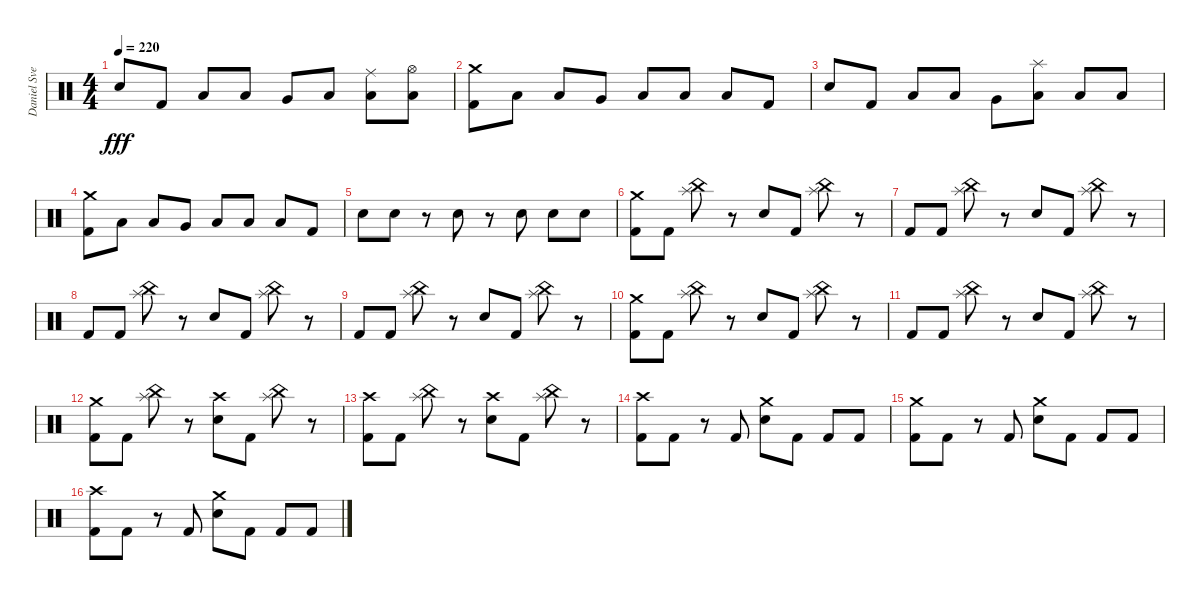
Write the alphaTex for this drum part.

\track ("Daniel Svensson" "Daniel Sve") {instrument percussion}
\staff {score}
\articulation defaults
\ts (4 4)
\tempo 220
\clef neutral
\ks c "Electric Snare (hit)".8{dy fff} "Kick (hit) 2".8 "Low Floor Tom (hit)".8 "Low Tom (hit)".8 "Very Low Tom (hit)".8 "Low Floor Tom (hit)".8
("Ride (middle)" "Low Tom (hit)").8 ("Hi-Hat (open)" "Low Floor Tom (hit)").8 |
("Crash medium (hit)" "Kick (hit) 2").8 "Low Tom (hit)".8 "Low Floor Tom (hit)".8 "Very Low Tom (hit)".8 "Low Tom (hit)".8 "Low Floor Tom (hit)".8 "Low Floor Tom (hit)".8 "Kick (hit) 2".8 |
"Electric Snare (hit)".8 "Kick (hit) 2".8 "Low Floor Tom (hit)".8 "Low Tom (hit)".8 "Very Low Tom (hit)".8 ("Splash (hit)" "Low Floor Tom (hit)").8 "Low Tom (hit)".8 "Low Floor Tom (hit)".8 |
("Crash medium (hit)" "Kick (hit) 2").8 "Low Tom (hit)".8 "Low Floor Tom (hit)".8 "Very Low Tom (hit)".8 "Low Tom (hit)".8 "Low Floor Tom (hit)".8 "Low Floor Tom (hit)".8 "Kick (hit) 2".8 |
"Electric Snare (hit)".8 "Electric Snare (hit)".8 r.8 "Electric Snare (hit)".8 r.8 "Electric Snare (hit)".8 "Electric Snare (hit)".8 "Electric Snare (hit)".8 |
("Crash medium (hit)" "Kick (hit) 2").8 "Kick (hit) 2".8 ("China (hit)" "Splash (hit)").8 r.8 "Electric Snare (hit)".8 "Kick (hit) 2".8 ("China (hit)" "Splash (hit)").8 r.8 |
"Kick (hit) 2".8 "Kick (hit) 2".8 ("China (hit)" "Splash (hit)").8 r.8 "Electric Snare (hit)".8 "Kick (hit) 2".8 ("China (hit)" "Splash (hit)").8 r.8 |
"Kick (hit) 2".8 "Kick (hit) 2".8 ("China (hit)" "Splash (hit)").8 r.8 "Electric Snare (hit)".8 "Kick (hit) 2".8 ("China (hit)" "Splash (hit)").8 r.8 |
"Kick (hit) 2".8 "Kick (hit) 2".8 ("China (hit)" "Splash (hit)").8 r.8 "Electric Snare (hit)".8 "Kick (hit) 2".8 ("China (hit)" "Splash (hit)").8 r.8 |
("Crash medium (hit)" "Kick (hit) 2").8 "Kick (hit) 2".8 ("China (hit)" "Splash (hit)").8 r.8 "Electric Snare (hit)".8 "Kick (hit) 2".8 ("China (hit)" "Splash (hit)").8 r.8 |
"Kick (hit) 2".8 "Kick (hit) 2".8 ("China (hit)" "Splash (hit)").8 r.8 "Electric Snare (hit)".8 "Kick (hit) 2".8 ("China (hit)" "Splash (hit)").8 r.8 |
("Crash medium (hit)" "Kick (hit) 2").8 "Kick (hit) 2".8 ("China (hit)" "Splash (hit)").8 r.8 ("Crash high (hit)" "Electric Snare (hit)").8 "Kick (hit) 2".8 ("China (hit)" "Splash (hit)").8 r.8 |
("Crash high (hit)" "Kick (hit) 2").8 "Kick (hit) 2".8 ("China (hit)" "Splash (hit)").8 r.8 ("Crash high (hit)" "Electric Snare (hit)").8 "Kick (hit) 2".8 ("China (hit)" "Splash (hit)").8 r.8 |
("Crash high (hit)" "Kick (hit) 2").8 "Kick (hit) 2".8 r.8 "Kick (hit) 2".8 ("Crash medium (hit)" "Electric Snare (hit)").8 "Kick (hit) 2".8 "Kick (hit) 2".8 "Kick (hit) 2".8 |
("Crash medium (hit)" "Kick (hit) 2").8 "Kick (hit) 2".8 r.8 "Kick (hit) 2".8 ("Crash medium (hit)" "Electric Snare (hit)").8 "Kick (hit) 2".8 "Kick (hit) 2".8 "Kick (hit) 2".8 |
("Crash high (hit)" "Kick (hit) 2").8 "Kick (hit) 2".8 r.8 "Kick (hit) 2".8 ("Crash medium (hit)" "Electric Snare (hit)").8 "Kick (hit) 2".8 "Kick (hit) 2".8 "Kick (hit) 2".8
